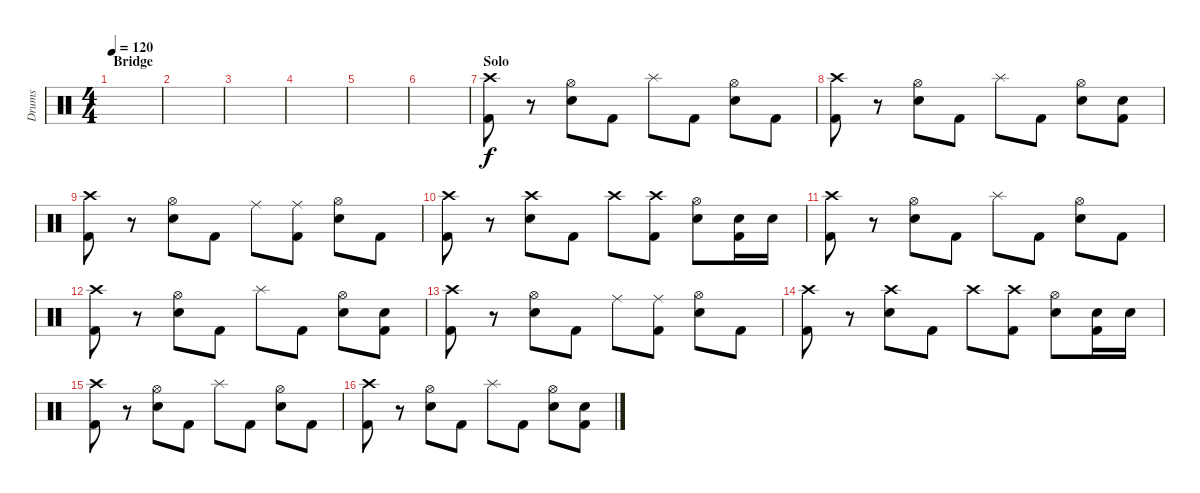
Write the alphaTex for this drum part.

\track ("Drums" "Drums") {instrument percussion}
\staff {score}
\articulation defaults
\ts (4 4)
\section ("" "Bridge")
\tempo 120
\clef neutral
\ks c
|
|
|
|
|
|
\section ("" "Solo")
("Crash high (hit)" "Kick (hit) 2").8 r.8 ("Hi-Hat (open)" "Electric Snare (hit)").8 "Kick (hit) 2".8 "Splash (hit)".8 "Kick (hit) 2".8 ("Hi-Hat (open)" "Electric Snare (hit)").8 "Kick (hit) 2".8 |
("Crash high (hit)" "Kick (hit) 2").8 r.8 ("Hi-Hat (open)" "Electric Snare (hit)").8 "Kick (hit) 2".8 "Splash (hit)".8 "Kick (hit) 2".8 ("Hi-Hat (open)" "Electric Snare (hit)").8 ("Electric Snare (hit)" "Kick (hit) 2").8 |
("Crash high (hit)" "Kick (hit) 2").8 r.8 ("Hi-Hat (open)" "Electric Snare (hit)").8 "Kick (hit) 2".8 "Ride (middle)".8 ("Ride (middle)" "Kick (hit) 2").8 ("Hi-Hat (open)" "Electric Snare (hit)").8 "Kick (hit) 2".8 |
("Crash high (hit)" "Kick (hit) 2").8 r.8 ("Crash high (hit)" "Electric Snare (hit)").8 "Kick (hit) 2".8 "Crash high (hit)".8 ("Crash high (hit)" "Kick (hit) 2").8 ("Hi-Hat (open)" "Electric Snare (hit)").8 ("Electric Snare (hit)" "Kick (hit) 2").16 "Electric Snare (hit)".16 |
("Crash high (hit)" "Kick (hit) 2").8 r.8 ("Hi-Hat (open)" "Electric Snare (hit)").8 "Kick (hit) 2".8 "Splash (hit)".8 "Kick (hit) 2".8 ("Hi-Hat (open)" "Electric Snare (hit)").8 "Kick (hit) 2".8 |
("Crash high (hit)" "Kick (hit) 2").8 r.8 ("Hi-Hat (open)" "Electric Snare (hit)").8 "Kick (hit) 2".8 "Splash (hit)".8 "Kick (hit) 2".8 ("Hi-Hat (open)" "Electric Snare (hit)").8 ("Electric Snare (hit)" "Kick (hit) 2").8 |
("Crash high (hit)" "Kick (hit) 2").8 r.8 ("Hi-Hat (open)" "Electric Snare (hit)").8 "Kick (hit) 2".8 "Ride (middle)".8 ("Ride (middle)" "Kick (hit) 2").8 ("Hi-Hat (open)" "Electric Snare (hit)").8 "Kick (hit) 2".8 |
("Crash high (hit)" "Kick (hit) 2").8 r.8 ("Crash high (hit)" "Electric Snare (hit)").8 "Kick (hit) 2".8 "Crash high (hit)".8 ("Crash high (hit)" "Kick (hit) 2").8 ("Hi-Hat (open)" "Electric Snare (hit)").8 ("Electric Snare (hit)" "Kick (hit) 2").16 "Electric Snare (hit)".16 |
("Crash high (hit)" "Kick (hit) 2").8 r.8 ("Hi-Hat (open)" "Electric Snare (hit)").8 "Kick (hit) 2".8 "Splash (hit)".8 "Kick (hit) 2".8 ("Hi-Hat (open)" "Electric Snare (hit)").8 "Kick (hit) 2".8 |
("Crash high (hit)" "Kick (hit) 2").8 r.8 ("Hi-Hat (open)" "Electric Snare (hit)").8 "Kick (hit) 2".8 "Splash (hit)".8 "Kick (hit) 2".8 ("Hi-Hat (open)" "Electric Snare (hit)").8 ("Electric Snare (hit)" "Kick (hit) 2").8
